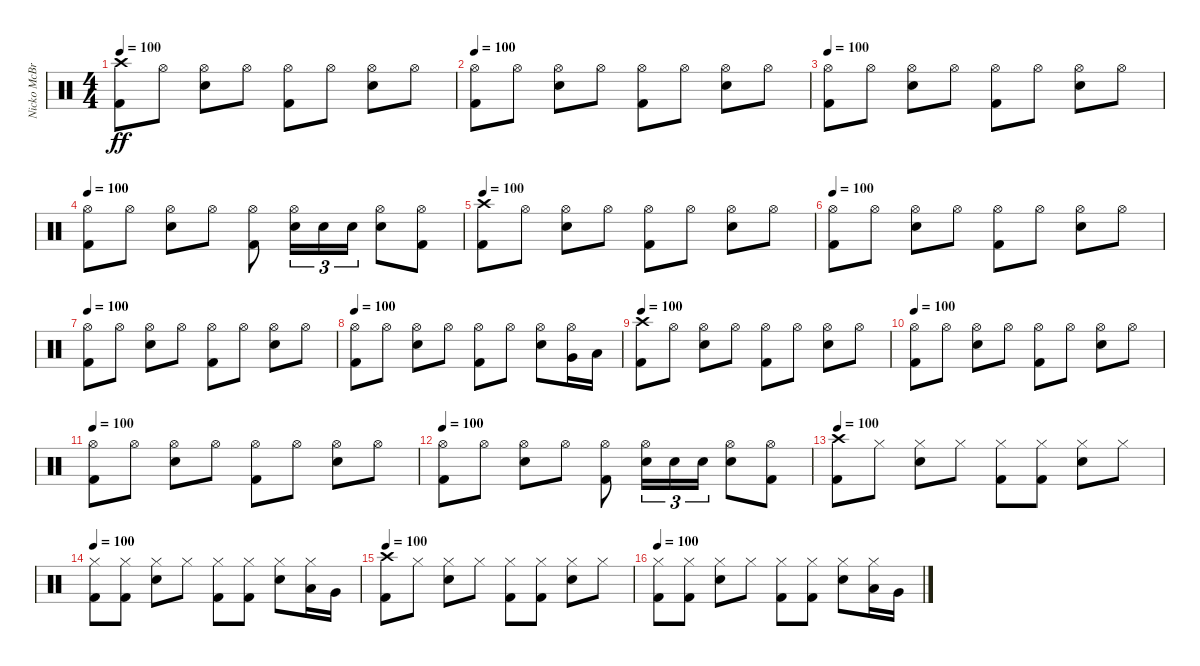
\track ("Nicko McBrain" "Nicko McBr") {instrument percussion}
\staff {score}
\articulation defaults
\ts (4 4)
\tempo 100
\clef neutral
\ks c
("Kick (hit) 2" "Crash high (hit)").8{dy ff} "Hi-Hat (open)".8 ("Snare (hit) 2" "Hi-Hat (open)").8 "Hi-Hat (open)".8 ("Kick (hit) 2" "Hi-Hat (open)").8 "Hi-Hat (open)".8 ("Snare (hit) 2" "Hi-Hat (open)").8 "Hi-Hat (open)".8 |
\tempo 100
("Kick (hit) 2" "Hi-Hat (open)").8 "Hi-Hat (open)".8 ("Snare (hit) 2" "Hi-Hat (open)").8 "Hi-Hat (open)".8 ("Kick (hit) 2" "Hi-Hat (open)").8 "Hi-Hat (open)".8 ("Snare (hit) 2" "Hi-Hat (open)").8 "Hi-Hat (open)".8 |
\tempo 100
("Kick (hit) 2" "Hi-Hat (open)").8 "Hi-Hat (open)".8 ("Snare (hit) 2" "Hi-Hat (open)").8 "Hi-Hat (open)".8 ("Kick (hit) 2" "Hi-Hat (open)").8 "Hi-Hat (open)".8 ("Snare (hit) 2" "Hi-Hat (open)").8 "Hi-Hat (open)".8 |
\tempo 100
("Kick (hit) 2" "Hi-Hat (open)").8 "Hi-Hat (open)".8 ("Snare (hit) 2" "Hi-Hat (open)").8 "Hi-Hat (open)".8 ("Kick (hit) 2" "Hi-Hat (open)").8 ("Snare (hit) 2" "Hi-Hat (open)").16{tu (3 2)} "Snare (hit) 2".16{tu (3 2)} "Snare (hit) 2".16{tu (3 2)} ("Snare (hit) 2" "Hi-Hat (open)").8 ("Kick (hit) 2" "Hi-Hat (open)").8 |
\tempo 100
("Kick (hit) 2" "Crash high (hit)").8 "Hi-Hat (open)".8 ("Snare (hit) 2" "Hi-Hat (open)").8 "Hi-Hat (open)".8 ("Kick (hit) 2" "Hi-Hat (open)").8 "Hi-Hat (open)".8 ("Snare (hit) 2" "Hi-Hat (open)").8 "Hi-Hat (open)".8 |
\tempo 100
("Kick (hit) 2" "Hi-Hat (open)").8 "Hi-Hat (open)".8 ("Snare (hit) 2" "Hi-Hat (open)").8 "Hi-Hat (open)".8 ("Kick (hit) 2" "Hi-Hat (open)").8 "Hi-Hat (open)".8 ("Snare (hit) 2" "Hi-Hat (open)").8 "Hi-Hat (open)".8 |
\tempo 100
("Kick (hit) 2" "Hi-Hat (open)").8 "Hi-Hat (open)".8 ("Snare (hit) 2" "Hi-Hat (open)").8 "Hi-Hat (open)".8 ("Kick (hit) 2" "Hi-Hat (open)").8 "Hi-Hat (open)".8 ("Snare (hit) 2" "Hi-Hat (open)").8 "Hi-Hat (open)".8 |
\tempo 100
("Kick (hit) 2" "Hi-Hat (open)").8 "Hi-Hat (open)".8 ("Snare (hit) 2" "Hi-Hat (open)").8 "Hi-Hat (open)".8 ("Kick (hit) 2" "Hi-Hat (open)").8 "Hi-Hat (open)".8 ("Snare (hit) 2" "Hi-Hat (open)").8 ("Very Low Tom (hit)" "Hi-Hat (open)").16 "Low Floor Tom (hit)".16 |
\tempo 100
("Kick (hit) 2" "Crash high (hit)").8 "Hi-Hat (open)".8 ("Snare (hit) 2" "Hi-Hat (open)").8 "Hi-Hat (open)".8 ("Kick (hit) 2" "Hi-Hat (open)").8 "Hi-Hat (open)".8 ("Snare (hit) 2" "Hi-Hat (open)").8 "Hi-Hat (open)".8 |
\tempo 100
("Kick (hit) 2" "Hi-Hat (open)").8 "Hi-Hat (open)".8 ("Snare (hit) 2" "Hi-Hat (open)").8 "Hi-Hat (open)".8 ("Kick (hit) 2" "Hi-Hat (open)").8 "Hi-Hat (open)".8 ("Snare (hit) 2" "Hi-Hat (open)").8 "Hi-Hat (open)".8 |
\tempo 100
("Kick (hit) 2" "Hi-Hat (open)").8 "Hi-Hat (open)".8 ("Snare (hit) 2" "Hi-Hat (open)").8 "Hi-Hat (open)".8 ("Kick (hit) 2" "Hi-Hat (open)").8 "Hi-Hat (open)".8 ("Snare (hit) 2" "Hi-Hat (open)").8 "Hi-Hat (open)".8 |
\tempo 100
("Kick (hit) 2" "Hi-Hat (open)").8 "Hi-Hat (open)".8 ("Snare (hit) 2" "Hi-Hat (open)").8 "Hi-Hat (open)".8 ("Kick (hit) 2" "Hi-Hat (open)").8 ("Snare (hit) 2" "Hi-Hat (open)").16{tu (3 2)} "Snare (hit) 2".16{tu (3 2)} "Snare (hit) 2".16{tu (3 2)} ("Snare (hit) 2" "Hi-Hat (open)").8 ("Kick (hit) 2" "Hi-Hat (open)").8 |
\tempo 100
("Kick (hit) 2" "Crash high (hit)").8 "Hi-Hat (closed)".8 ("Snare (hit) 2" "Hi-Hat (closed)").8 "Hi-Hat (closed)".8 ("Kick (hit) 2" "Hi-Hat (closed)").8 ("Kick (hit) 2" "Hi-Hat (closed)").8 ("Snare (hit) 2" "Hi-Hat (closed)").8 "Hi-Hat (closed)".8 |
\tempo 100
("Kick (hit) 2" "Hi-Hat (closed)").8 ("Kick (hit) 2" "Hi-Hat (closed)").8 ("Snare (hit) 2" "Hi-Hat (closed)").8 "Hi-Hat (closed)".8 ("Kick (hit) 2" "Hi-Hat (closed)").8 ("Kick (hit) 2" "Hi-Hat (closed)").8 ("Snare (hit) 2" "Hi-Hat (closed)").8 ("Hi-Hat (closed)" "Low Tom (hit)").16 "Very Low Tom (hit)".16 |
\tempo 100
("Kick (hit) 2" "Crash high (hit)").8 "Hi-Hat (closed)".8 ("Snare (hit) 2" "Hi-Hat (closed)").8 "Hi-Hat (closed)".8 ("Kick (hit) 2" "Hi-Hat (closed)").8 ("Kick (hit) 2" "Hi-Hat (closed)").8 ("Snare (hit) 2" "Hi-Hat (closed)").8 "Hi-Hat (closed)".8 |
\tempo 100
("Kick (hit) 2" "Hi-Hat (closed)").8 ("Kick (hit) 2" "Hi-Hat (closed)").8 ("Snare (hit) 2" "Hi-Hat (closed)").8 "Hi-Hat (closed)".8 ("Kick (hit) 2" "Hi-Hat (closed)").8 ("Kick (hit) 2" "Hi-Hat (closed)").8 ("Snare (hit) 2" "Hi-Hat (closed)").8 ("Hi-Hat (closed)" "Low Tom (hit)").16 "Very Low Tom (hit)".16
